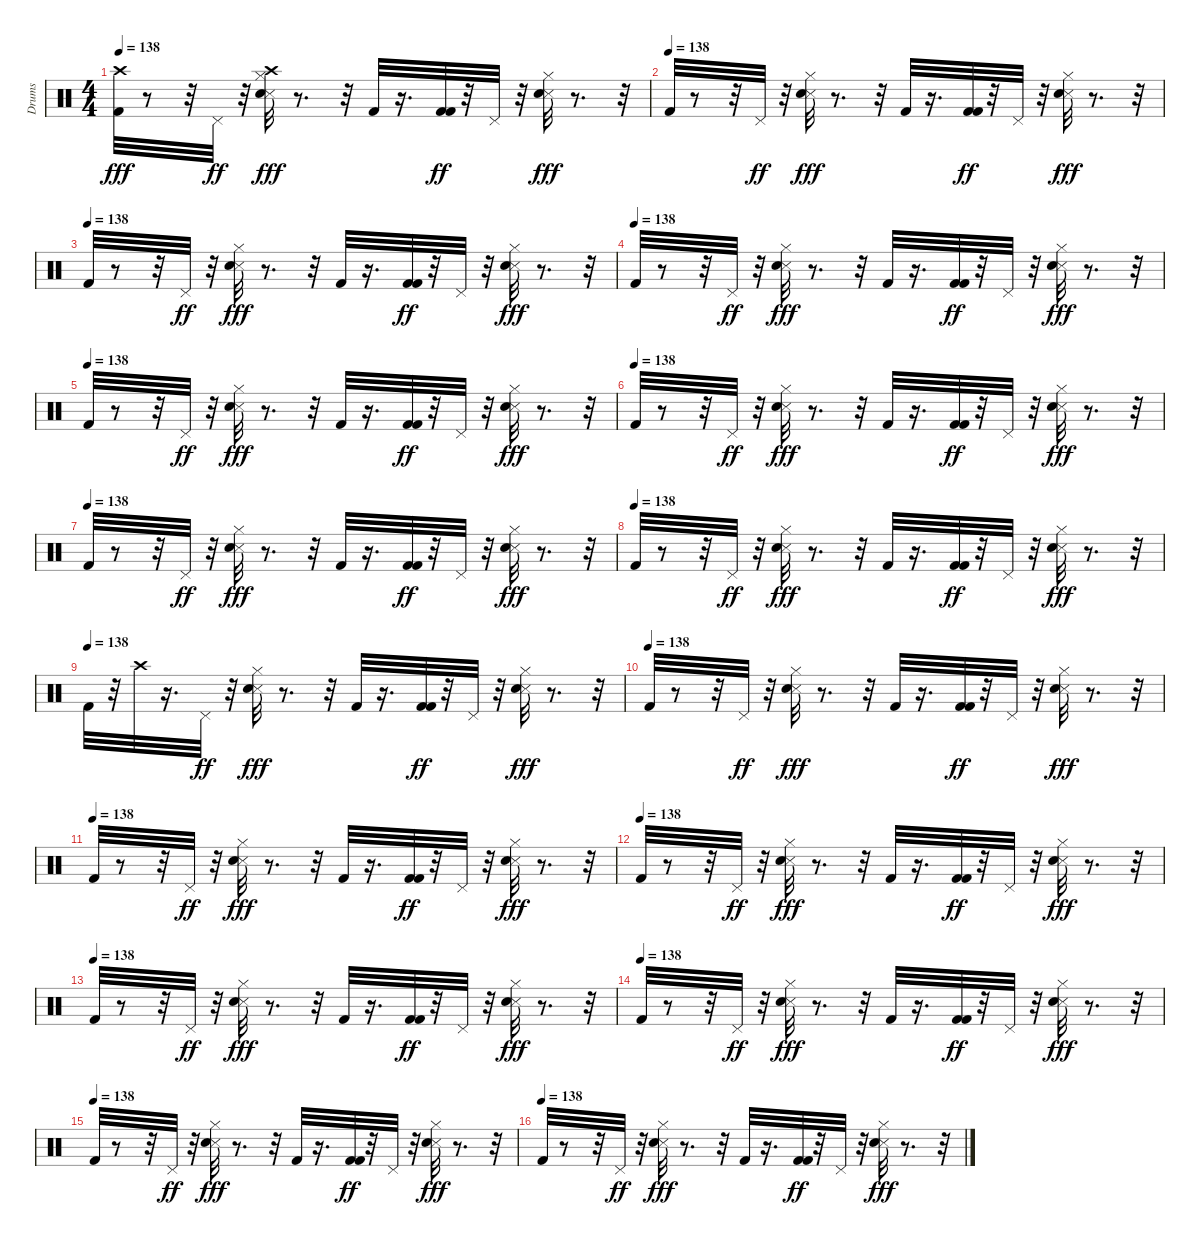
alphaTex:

\track ("Drums" "Drums") {instrument percussion}
\staff {score}
\articulation defaults
\ts (4 4)
\tempo 138
\clef neutral
\ks c
("Kick (hit) 2" "Crash high (hit)").32{dy fff volume 12} r.8 r.32 "Pedal Hi-Hat (hit)".32{dy ff} r.32 ("Snare (side stick) 3" "Snare (hit) 2" "Hi-Hat (closed)" "Crash high (hit)").32{dy fff} r.8{d} r.32 "Kick (hit) 2".32 r.16{d} ("Kick (hit) 2" "Kick (hit) 2").32{dy ff} r.32 "Pedal Hi-Hat (hit)".32 r.32 ("Snare (side stick) 3" "Snare (hit) 2" "Hi-Hat (closed)").32{dy fff} r.8{d} r.32 |
\tempo (138)
"Kick (hit) 2".32{volume 12} r.8 r.32 "Pedal Hi-Hat (hit)".32{dy ff} r.32 ("Snare (side stick) 3" "Snare (hit) 2" "Hi-Hat (closed)").32{dy fff} r.8{d} r.32 "Kick (hit) 2".32 r.16{d} ("Kick (hit) 2" "Kick (hit) 2").32{dy ff} r.32 "Pedal Hi-Hat (hit)".32 r.32 ("Snare (side stick) 3" "Snare (hit) 2" "Hi-Hat (closed)").32{dy fff} r.8{d} r.32 |
\tempo (138)
"Kick (hit) 2".32{volume 12} r.8 r.32 "Pedal Hi-Hat (hit)".32{dy ff} r.32 ("Snare (side stick) 3" "Snare (hit) 2" "Hi-Hat (closed)").32{dy fff} r.8{d} r.32 "Kick (hit) 2".32 r.16{d} ("Kick (hit) 2" "Kick (hit) 2").32{dy ff} r.32 "Pedal Hi-Hat (hit)".32 r.32 ("Snare (side stick) 3" "Snare (hit) 2" "Hi-Hat (closed)").32{dy fff} r.8{d} r.32 |
\tempo (138)
"Kick (hit) 2".32{volume 12} r.8 r.32 "Pedal Hi-Hat (hit)".32{dy ff} r.32 ("Snare (side stick) 3" "Snare (hit) 2" "Hi-Hat (closed)").32{dy fff} r.8{d} r.32 "Kick (hit) 2".32 r.16{d} ("Kick (hit) 2" "Kick (hit) 2").32{dy ff} r.32 "Pedal Hi-Hat (hit)".32 r.32 ("Snare (side stick) 3" "Snare (hit) 2" "Hi-Hat (closed)").32{dy fff} r.8{d} r.32 |
\tempo (138)
"Kick (hit) 2".32{volume 12} r.8 r.32 "Pedal Hi-Hat (hit)".32{dy ff} r.32 ("Snare (side stick) 3" "Snare (hit) 2" "Hi-Hat (closed)").32{dy fff} r.8{d} r.32 "Kick (hit) 2".32 r.16{d} ("Kick (hit) 2" "Kick (hit) 2").32{dy ff} r.32 "Pedal Hi-Hat (hit)".32 r.32 ("Snare (side stick) 3" "Snare (hit) 2" "Hi-Hat (closed)").32{dy fff} r.8{d} r.32 |
\tempo (138)
"Kick (hit) 2".32{volume 12} r.8 r.32 "Pedal Hi-Hat (hit)".32{dy ff} r.32 ("Snare (side stick) 3" "Snare (hit) 2" "Hi-Hat (closed)").32{dy fff} r.8{d} r.32 "Kick (hit) 2".32 r.16{d} ("Kick (hit) 2" "Kick (hit) 2").32{dy ff} r.32 "Pedal Hi-Hat (hit)".32 r.32 ("Snare (side stick) 3" "Snare (hit) 2" "Hi-Hat (closed)").32{dy fff} r.8{d} r.32 |
\tempo (138)
"Kick (hit) 2".32{volume 12} r.8 r.32 "Pedal Hi-Hat (hit)".32{dy ff} r.32 ("Snare (side stick) 3" "Snare (hit) 2" "Hi-Hat (closed)").32{dy fff} r.8{d} r.32 "Kick (hit) 2".32 r.16{d} ("Kick (hit) 2" "Kick (hit) 2").32{dy ff} r.32 "Pedal Hi-Hat (hit)".32 r.32 ("Snare (side stick) 3" "Snare (hit) 2" "Hi-Hat (closed)").32{dy fff} r.8{d} r.32 |
\tempo (138)
"Kick (hit) 2".32{volume 12} r.8 r.32 "Pedal Hi-Hat (hit)".32{dy ff} r.32 ("Snare (side stick) 3" "Snare (hit) 2" "Hi-Hat (closed)").32{dy fff} r.8{d} r.32 "Kick (hit) 2".32 r.16{d} ("Kick (hit) 2" "Kick (hit) 2").32{dy ff} r.32 "Pedal Hi-Hat (hit)".32 r.32 ("Snare (side stick) 3" "Snare (hit) 2" "Hi-Hat (closed)").32{dy fff} r.8{d} r.32 |
\tempo (138)
"Kick (hit) 2".32{volume 12} r.32 "Crash high (hit)".32 r.16{d} "Pedal Hi-Hat (hit)".32{dy ff} r.32 ("Snare (side stick) 3" "Snare (hit) 2" "Hi-Hat (closed)").32{dy fff} r.8{d} r.32 "Kick (hit) 2".32 r.16{d} ("Kick (hit) 2" "Kick (hit) 2").32{dy ff} r.32 "Pedal Hi-Hat (hit)".32 r.32 ("Snare (side stick) 3" "Snare (hit) 2" "Hi-Hat (closed)").32{dy fff} r.8{d} r.32 |
\tempo (138)
"Kick (hit) 2".32{volume 12} r.8 r.32 "Pedal Hi-Hat (hit)".32{dy ff} r.32 ("Snare (side stick) 3" "Snare (hit) 2" "Hi-Hat (closed)").32{dy fff} r.8{d} r.32 "Kick (hit) 2".32 r.16{d} ("Kick (hit) 2" "Kick (hit) 2").32{dy ff} r.32 "Pedal Hi-Hat (hit)".32 r.32 ("Snare (side stick) 3" "Snare (hit) 2" "Hi-Hat (closed)").32{dy fff} r.8{d} r.32 |
\tempo (138)
"Kick (hit) 2".32{volume 12} r.8 r.32 "Pedal Hi-Hat (hit)".32{dy ff} r.32 ("Snare (side stick) 3" "Snare (hit) 2" "Hi-Hat (closed)").32{dy fff} r.8{d} r.32 "Kick (hit) 2".32 r.16{d} ("Kick (hit) 2" "Kick (hit) 2").32{dy ff} r.32 "Pedal Hi-Hat (hit)".32 r.32 ("Snare (side stick) 3" "Snare (hit) 2" "Hi-Hat (closed)").32{dy fff} r.8{d} r.32 |
\tempo (138)
"Kick (hit) 2".32{volume 12} r.8 r.32 "Pedal Hi-Hat (hit)".32{dy ff} r.32 ("Snare (side stick) 3" "Snare (hit) 2" "Hi-Hat (closed)").32{dy fff} r.8{d} r.32 "Kick (hit) 2".32 r.16{d} ("Kick (hit) 2" "Kick (hit) 2").32{dy ff} r.32 "Pedal Hi-Hat (hit)".32 r.32 ("Snare (side stick) 3" "Snare (hit) 2" "Hi-Hat (closed)").32{dy fff} r.8{d} r.32 |
\tempo (138)
"Kick (hit) 2".32{volume 12} r.8 r.32 "Pedal Hi-Hat (hit)".32{dy ff} r.32 ("Snare (side stick) 3" "Snare (hit) 2" "Hi-Hat (closed)").32{dy fff} r.8{d} r.32 "Kick (hit) 2".32 r.16{d} ("Kick (hit) 2" "Kick (hit) 2").32{dy ff} r.32 "Pedal Hi-Hat (hit)".32 r.32 ("Snare (side stick) 3" "Snare (hit) 2" "Hi-Hat (closed)").32{dy fff} r.8{d} r.32 |
\tempo (138)
"Kick (hit) 2".32{volume 12} r.8 r.32 "Pedal Hi-Hat (hit)".32{dy ff} r.32 ("Snare (side stick) 3" "Snare (hit) 2" "Hi-Hat (closed)").32{dy fff} r.8{d} r.32 "Kick (hit) 2".32 r.16{d} ("Kick (hit) 2" "Kick (hit) 2").32{dy ff} r.32 "Pedal Hi-Hat (hit)".32 r.32 ("Snare (side stick) 3" "Snare (hit) 2" "Hi-Hat (closed)").32{dy fff} r.8{d} r.32 |
\tempo (138)
"Kick (hit) 2".32{volume 12} r.8 r.32 "Pedal Hi-Hat (hit)".32{dy ff} r.32 ("Snare (side stick) 3" "Snare (hit) 2" "Hi-Hat (closed)").32{dy fff} r.8{d} r.32 "Kick (hit) 2".32 r.16{d} ("Kick (hit) 2" "Kick (hit) 2").32{dy ff} r.32 "Pedal Hi-Hat (hit)".32 r.32 ("Snare (side stick) 3" "Snare (hit) 2" "Hi-Hat (closed)").32{dy fff} r.8{d} r.32 |
\tempo (138)
"Kick (hit) 2".32{volume 12} r.8 r.32 "Pedal Hi-Hat (hit)".32{dy ff} r.32 ("Snare (side stick) 3" "Snare (hit) 2" "Hi-Hat (closed)").32{dy fff} r.8{d} r.32 "Kick (hit) 2".32 r.16{d} ("Kick (hit) 2" "Kick (hit) 2").32{dy ff} r.32 "Pedal Hi-Hat (hit)".32 r.32 ("Snare (side stick) 3" "Snare (hit) 2" "Hi-Hat (closed)").32{dy fff} r.8{d} r.32
